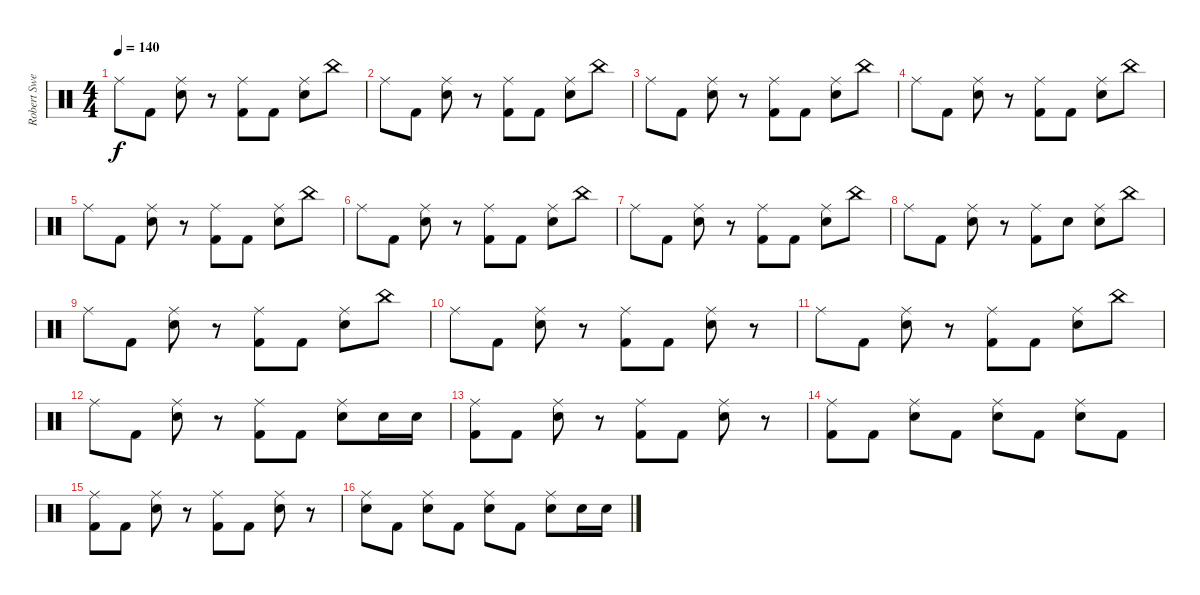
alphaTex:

\track ("Robert Sweet" "Robert Swe") {instrument percussion}
\staff {score}
\articulation defaults
\ts (4 4)
\tempo 140
\clef neutral
\ks c "Ride (middle)".8{dy f} "Kick (hit) 2".8
("Ride (middle)" "Electric Snare (hit)").8 r.8 ("Ride (middle)" "Kick (hit) 2").8 "Kick (hit) 2".8 ("Ride (middle)" "Electric Snare (hit)").8 "China (hit)".8 |
"Ride (middle)".8 "Kick (hit) 2".8 ("Ride (middle)" "Electric Snare (hit)").8 r.8 ("Ride (middle)" "Kick (hit) 2").8 "Kick (hit) 2".8 ("Ride (middle)" "Electric Snare (hit)").8 "China (hit)".8 |
"Ride (middle)".8 "Kick (hit) 2".8 ("Ride (middle)" "Electric Snare (hit)").8 r.8 ("Ride (middle)" "Kick (hit) 2").8 "Kick (hit) 2".8 ("Ride (middle)" "Electric Snare (hit)").8 "China (hit)".8 |
"Ride (middle)".8 "Kick (hit) 2".8 ("Ride (middle)" "Electric Snare (hit)").8 r.8 ("Ride (middle)" "Kick (hit) 2").8 "Kick (hit) 2".8 ("Ride (middle)" "Electric Snare (hit)").8 "China (hit)".8 |
"Ride (middle)".8 "Kick (hit) 2".8 ("Ride (middle)" "Electric Snare (hit)").8 r.8 ("Ride (middle)" "Kick (hit) 2").8 "Kick (hit) 2".8 ("Ride (middle)" "Electric Snare (hit)").8 "China (hit)".8 |
"Ride (middle)".8 "Kick (hit) 2".8 ("Ride (middle)" "Electric Snare (hit)").8 r.8 ("Ride (middle)" "Kick (hit) 2").8 "Kick (hit) 2".8 ("Ride (middle)" "Electric Snare (hit)").8 "China (hit)".8 |
"Ride (middle)".8 "Kick (hit) 2".8 ("Ride (middle)" "Electric Snare (hit)").8 r.8 ("Ride (middle)" "Kick (hit) 2").8 "Kick (hit) 2".8 ("Ride (middle)" "Electric Snare (hit)").8 "China (hit)".8 |
"Ride (middle)".8 "Kick (hit) 2".8 ("Ride (middle)" "Electric Snare (hit)").8 r.8 ("Ride (middle)" "Kick (hit) 2").8 "Electric Snare (hit)".8 ("Ride (middle)" "Electric Snare (hit)").8 "China (hit)".8 |
"Ride (middle)".8 "Kick (hit) 2".8 ("Ride (middle)" "Electric Snare (hit)").8 r.8 ("Ride (middle)" "Kick (hit) 2").8 "Kick (hit) 2".8 ("Ride (middle)" "Electric Snare (hit)").8 "China (hit)".8 |
"Ride (middle)".8 "Kick (hit) 2".8 ("Ride (middle)" "Electric Snare (hit)").8 r.8 ("Ride (middle)" "Kick (hit) 2").8 "Kick (hit) 2".8 ("Ride (middle)" "Electric Snare (hit)").8 r.8 |
"Ride (middle)".8 "Kick (hit) 2".8 ("Ride (middle)" "Electric Snare (hit)").8 r.8 ("Ride (middle)" "Kick (hit) 2").8 "Kick (hit) 2".8 ("Ride (middle)" "Electric Snare (hit)").8 "China (hit)".8 |
"Ride (middle)".8 "Kick (hit) 2".8 ("Ride (middle)" "Electric Snare (hit)").8 r.8 ("Ride (middle)" "Kick (hit) 2").8 "Kick (hit) 2".8 ("Ride (middle)" "Electric Snare (hit)").8 "Electric Snare (hit)".16 "Electric Snare (hit)".16 |
("Ride (middle)" "Kick (hit) 2").8 "Kick (hit) 2".8 ("Ride (middle)" "Electric Snare (hit)").8 r.8 ("Ride (middle)" "Kick (hit) 2").8 "Kick (hit) 2".8 ("Ride (middle)" "Electric Snare (hit)").8 r.8 |
("Ride (middle)" "Kick (hit) 2").8 "Kick (hit) 2".8 ("Ride (middle)" "Electric Snare (hit)").8 "Kick (hit) 2".8 ("Ride (middle)" "Electric Snare (hit)").8 "Kick (hit) 2".8 ("Ride (middle)" "Electric Snare (hit)").8 "Kick (hit) 2".8 |
("Ride (middle)" "Kick (hit) 2").8 "Kick (hit) 2".8 ("Ride (middle)" "Electric Snare (hit)").8 r.8 ("Ride (middle)" "Kick (hit) 2").8 "Kick (hit) 2".8 ("Ride (middle)" "Electric Snare (hit)").8 r.8 |
("Ride (middle)" "Electric Snare (hit)").8 "Kick (hit) 2".8 ("Ride (middle)" "Electric Snare (hit)").8 "Kick (hit) 2".8 ("Ride (middle)" "Electric Snare (hit)").8 "Kick (hit) 2".8 ("Ride (middle)" "Electric Snare (hit)").8 "Electric Snare (hit)".16 "Electric Snare (hit)".16
